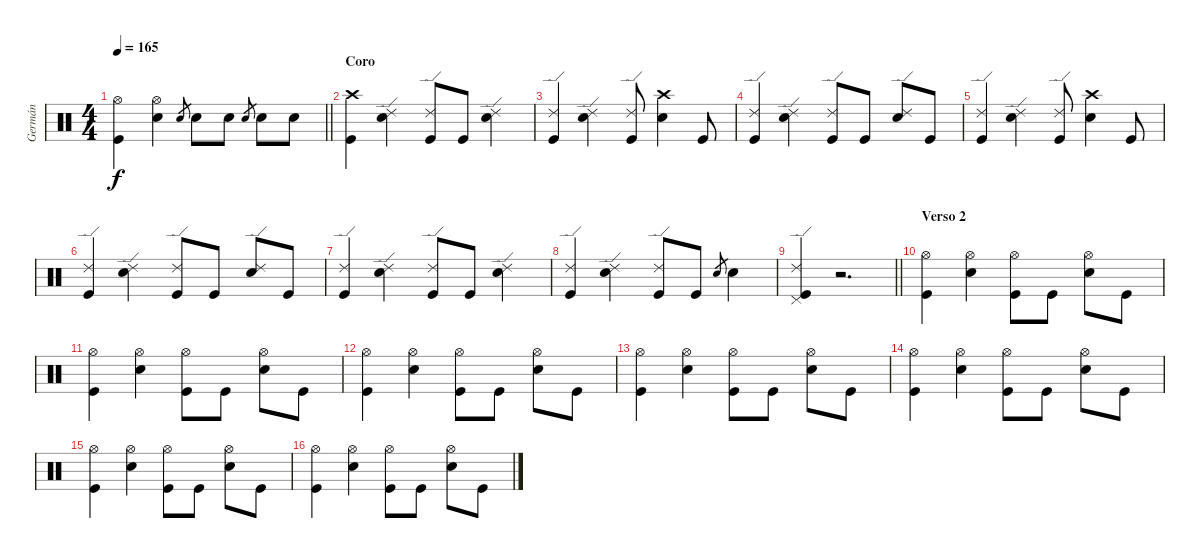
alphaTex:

\track ("Germán" "Germán") {instrument percussion}
\staff {score}
\articulation defaults
\ts (4 4)
\tempo 165
\clef neutral
\barLineRight lightlight
\ks c
("Hi-Hat (open)" "Kick (hit)").4{dy f} ("Hi-Hat (open)" "Electric Snare (hit)").4 "Electric Snare (hit)".8{gr} "Electric Snare (hit)".8 "Electric Snare (hit)".8 "Electric Snare (hit)".8{gr} "Electric Snare (hit)".8 "Electric Snare (hit)".8 |
\section ("" "Coro")
("Crash high (hit)" "Kick (hit)").4 ("Ride (edge) 2" "Electric Snare (hit)").4 ("Ride (edge) 2" "Kick (hit)").8 "Kick (hit)".8 ("Ride (edge) 2" "Electric Snare (hit)").4 |
("Ride (edge) 2" "Kick (hit)").4 ("Ride (edge) 2" "Electric Snare (hit)").4 ("Ride (edge) 2" "Kick (hit)").8 ("Crash high (hit)" "Electric Snare (hit)").4 "Kick (hit)".8 |
("Ride (edge) 2" "Kick (hit)").4 ("Ride (edge) 2" "Electric Snare (hit)").4 ("Ride (edge) 2" "Kick (hit)").8 "Kick (hit)".8 ("Ride (edge) 2" "Electric Snare (hit)").8 "Kick (hit)".8 |
("Ride (edge) 2" "Kick (hit)").4 ("Ride (edge) 2" "Electric Snare (hit)").4 ("Ride (edge) 2" "Kick (hit)").8 ("Crash high (hit)" "Electric Snare (hit)").4 "Kick (hit)".8 |
("Ride (edge) 2" "Kick (hit)").4 ("Ride (edge) 2" "Electric Snare (hit)").4 ("Ride (edge) 2" "Kick (hit)").8 "Kick (hit)".8 ("Ride (edge) 2" "Electric Snare (hit)").8 "Kick (hit)".8 |
("Ride (edge) 2" "Kick (hit)").4 ("Ride (edge) 2" "Electric Snare (hit)").4 ("Ride (edge) 2" "Kick (hit)").8 "Kick (hit)".8 ("Ride (edge) 2" "Electric Snare (hit)").4 |
("Ride (edge) 2" "Kick (hit)").4 ("Ride (edge) 2" "Electric Snare (hit)").4 ("Ride (edge) 2" "Kick (hit)").8 "Kick (hit)".8 "Electric Snare (hit)".8{gr} "Electric Snare (hit)".4 |
\barLineRight lightlight
("Ride (edge) 2" "Pedal Hi-Hat (hit)" "Kick (hit)").4 r.2{d} |
\section ("" "Verso 2")
("Hi-Hat (open)" "Kick (hit)").4 ("Hi-Hat (open)" "Electric Snare (hit)").4 ("Hi-Hat (open)" "Kick (hit)").8 "Kick (hit)".8 ("Hi-Hat (open)" "Electric Snare (hit)").8 "Kick (hit)".8 |
("Hi-Hat (open)" "Kick (hit)").4 ("Hi-Hat (open)" "Electric Snare (hit)").4 ("Hi-Hat (open)" "Kick (hit)").8 "Kick (hit)".8 ("Hi-Hat (open)" "Electric Snare (hit)").8 "Kick (hit)".8 |
("Hi-Hat (open)" "Kick (hit)").4 ("Hi-Hat (open)" "Electric Snare (hit)").4 ("Hi-Hat (open)" "Kick (hit)").8 "Kick (hit)".8 ("Hi-Hat (open)" "Electric Snare (hit)").8 "Kick (hit)".8 |
("Hi-Hat (open)" "Kick (hit)").4 ("Hi-Hat (open)" "Electric Snare (hit)").4 ("Hi-Hat (open)" "Kick (hit)").8 "Kick (hit)".8 ("Hi-Hat (open)" "Electric Snare (hit)").8 "Kick (hit)".8 |
("Hi-Hat (open)" "Kick (hit)").4 ("Hi-Hat (open)" "Electric Snare (hit)").4 ("Hi-Hat (open)" "Kick (hit)").8 "Kick (hit)".8 ("Hi-Hat (open)" "Electric Snare (hit)").8 "Kick (hit)".8 |
("Hi-Hat (open)" "Kick (hit)").4 ("Hi-Hat (open)" "Electric Snare (hit)").4 ("Hi-Hat (open)" "Kick (hit)").8 "Kick (hit)".8 ("Hi-Hat (open)" "Electric Snare (hit)").8 "Kick (hit)".8 |
("Hi-Hat (open)" "Kick (hit)").4 ("Hi-Hat (open)" "Electric Snare (hit)").4 ("Hi-Hat (open)" "Kick (hit)").8 "Kick (hit)".8 ("Hi-Hat (open)" "Electric Snare (hit)").8 "Kick (hit)".8
